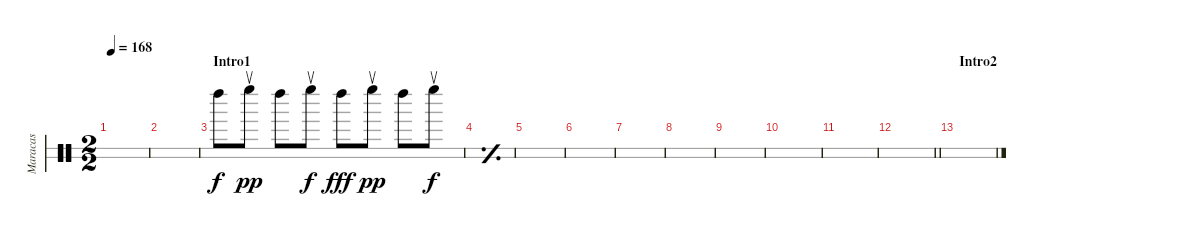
\bracketExtendMode groupsimilarinstruments
\multiTrackTrackNamePolicy hidden
\otherSystemsTrackNameOrientation horizontal
\track ("Maracas" "Maracas") {instrument percussion}
\staff {score 2}
\articulation defaults
\ts (2 2)
\tempo 168
\clef neutral
\ks c
|
|
\section ("" "Intro1")
"Left Maraca (hit)".8{beam Down} "Left Maraca (return)".8{dy pp beam Down} "Left Maraca (hit)".8{beam Down} "Left Maraca (return)".8{dy f beam Down} "Left Maraca (hit)".8{dy fff beam Down} "Left Maraca (return)".8{dy pp beam Down} "Left Maraca (hit)".8{beam Down} "Left Maraca (return)".8{dy f beam Down} |
\simile simple
|
|
|
|
|
|
|
|
\barLineRight lightlight
|
\section ("" "Intro2")
